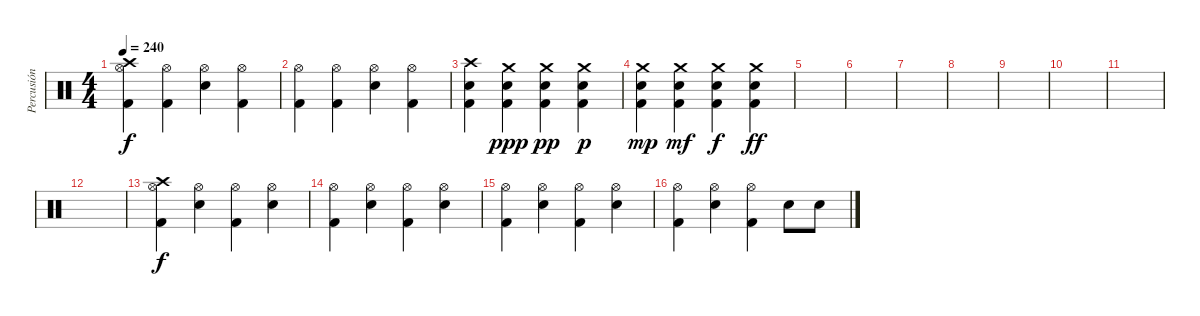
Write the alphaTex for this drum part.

\track ("Percusión" "Percusión") {instrument percussion}
\staff {score}
\articulation defaults
\ts (4 4)
\tempo 240
\clef neutral
\ks c
("Crash high (hit)" "Hi-Hat (open)" "Kick (hit) 2").4{dy f} ("Hi-Hat (open)" "Kick (hit) 2").4 ("Hi-Hat (open)" "Snare (hit) 2").4 ("Hi-Hat (open)" "Kick (hit) 2").4 |
("Hi-Hat (open)" "Kick (hit) 2").4 ("Hi-Hat (open)" "Kick (hit) 2").4 ("Hi-Hat (open)" "Snare (hit) 2").4 ("Hi-Hat (open)" "Kick (hit) 2").4 |
("Crash high (hit)" "Snare (hit) 2" "Kick (hit) 2").4 ("Crash medium (hit)" "Snare (hit) 2" "Kick (hit) 2").4{dy ppp} ("Crash medium (hit)" "Snare (hit) 2" "Kick (hit) 2").4{dy pp} ("Crash medium (hit)" "Snare (hit) 2" "Kick (hit) 2").4{dy p} |
("Crash medium (hit)" "Snare (hit) 2" "Kick (hit) 2").4{dy mp} ("Crash medium (hit)" "Snare (hit) 2" "Kick (hit) 2").4{dy mf} ("Crash medium (hit)" "Snare (hit) 2" "Kick (hit) 2").4{dy f} ("Crash medium (hit)" "Snare (hit) 2" "Kick (hit) 2").4{dy ff} |
|
|
|
|
|
|
|
|
("Crash high (hit)" "Hi-Hat (open)" "Kick (hit) 2").4{dy f} ("Hi-Hat (open)" "Snare (hit) 2").4 ("Hi-Hat (open)" "Kick (hit) 2").4 ("Hi-Hat (open)" "Snare (hit) 2").4 |
("Hi-Hat (open)" "Kick (hit) 2").4 ("Hi-Hat (open)" "Snare (hit) 2").4 ("Hi-Hat (open)" "Kick (hit) 2").4 ("Hi-Hat (open)" "Snare (hit) 2").4 |
("Hi-Hat (open)" "Kick (hit) 2").4 ("Hi-Hat (open)" "Snare (hit) 2").4 ("Hi-Hat (open)" "Kick (hit) 2").4 ("Hi-Hat (open)" "Snare (hit) 2").4 |
("Hi-Hat (open)" "Kick (hit) 2").4 ("Hi-Hat (open)" "Snare (hit) 2").4 ("Hi-Hat (open)" "Kick (hit) 2").4 "Snare (hit) 2".8 "Snare (hit) 2".8
